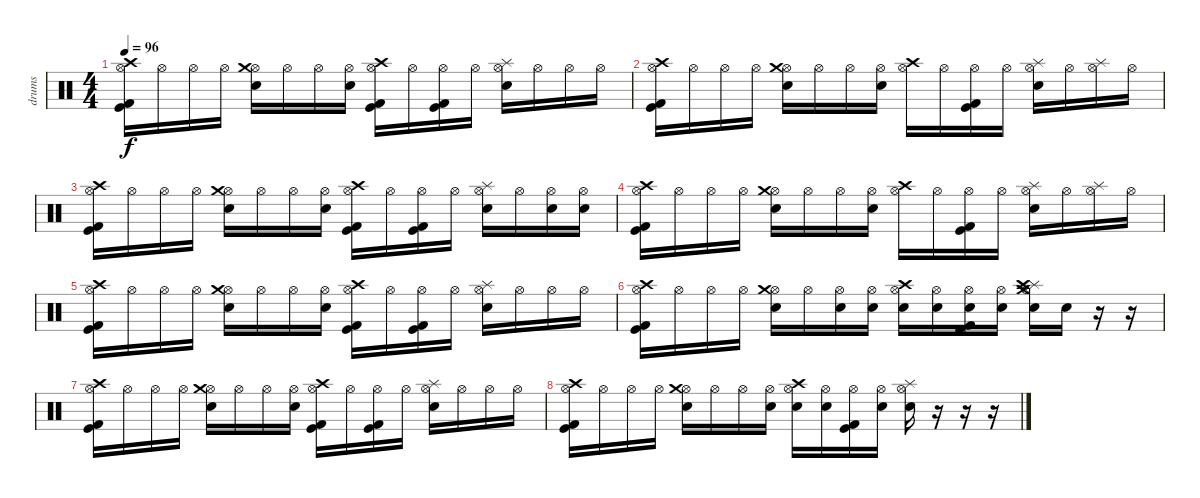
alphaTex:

\track ("drums" "drums") {instrument percussion}
\staff {score}
\articulation defaults
\ts (4 4)
\tempo 96
\clef neutral
\ks c
("Hi-Hat (open)" "Crash high (hit)" "Kick (hit) 2" "Kick (hit)").16{dy f} "Hi-Hat (open)".16 "Hi-Hat (open)".16 "Hi-Hat (open)".16 ("Hi-Hat (open)" "Crash medium (hit)" "Electric Snare (hit)").16 "Hi-Hat (open)".16 "Hi-Hat (open)".16 ("Hi-Hat (open)" "Electric Snare (hit)").16 ("Hi-Hat (open)" "Crash high (hit)" "Kick (hit)" "Kick (hit) 2").16 "Hi-Hat (open)".16 ("Hi-Hat (open)" "Kick (hit)" "Kick (hit) 2").16 "Hi-Hat (open)".16 ("Hi-Hat (open)" "Splash (hit)" "Electric Snare (hit)").16 "Hi-Hat (open)".16 "Hi-Hat (open)".16 "Hi-Hat (open)".16 |
("Hi-Hat (open)" "Crash high (hit)" "Kick (hit) 2" "Kick (hit)").16 "Hi-Hat (open)".16 "Hi-Hat (open)".16 "Hi-Hat (open)".16 ("Hi-Hat (open)" "Crash medium (hit)" "Electric Snare (hit)").16 "Hi-Hat (open)".16 "Hi-Hat (open)".16 ("Hi-Hat (open)" "Electric Snare (hit)").16 ("Hi-Hat (open)" "Crash high (hit)").16 "Hi-Hat (open)".16 ("Hi-Hat (open)" "Kick (hit)" "Kick (hit) 2").16 "Hi-Hat (open)".16 ("Hi-Hat (open)" "Splash (hit)" "Electric Snare (hit)").16 "Hi-Hat (open)".16 ("Hi-Hat (open)" "Splash (hit)").16 "Hi-Hat (open)".16 |
("Hi-Hat (open)" "Crash high (hit)" "Kick (hit) 2" "Kick (hit)").16 "Hi-Hat (open)".16 "Hi-Hat (open)".16 "Hi-Hat (open)".16 ("Hi-Hat (open)" "Crash medium (hit)" "Electric Snare (hit)").16 "Hi-Hat (open)".16 "Hi-Hat (open)".16 ("Hi-Hat (open)" "Electric Snare (hit)").16 ("Hi-Hat (open)" "Crash high (hit)" "Kick (hit)" "Kick (hit) 2").16 "Hi-Hat (open)".16 ("Hi-Hat (open)" "Kick (hit)" "Kick (hit) 2").16 "Hi-Hat (open)".16 ("Hi-Hat (open)" "Splash (hit)" "Electric Snare (hit)").16 "Hi-Hat (open)".16 ("Hi-Hat (open)" "Electric Snare (hit)").16 ("Hi-Hat (open)" "Electric Snare (hit)").16 |
("Hi-Hat (open)" "Crash high (hit)" "Kick (hit) 2" "Kick (hit)").16 "Hi-Hat (open)".16 "Hi-Hat (open)".16 "Hi-Hat (open)".16 ("Hi-Hat (open)" "Crash medium (hit)" "Electric Snare (hit)").16 "Hi-Hat (open)".16 "Hi-Hat (open)".16 ("Hi-Hat (open)" "Electric Snare (hit)").16 ("Hi-Hat (open)" "Crash high (hit)").16 "Hi-Hat (open)".16 ("Hi-Hat (open)" "Kick (hit)" "Kick (hit) 2").16 "Hi-Hat (open)".16 ("Hi-Hat (open)" "Splash (hit)" "Electric Snare (hit)").16 "Hi-Hat (open)".16 ("Hi-Hat (open)" "Splash (hit)").16 "Hi-Hat (open)".16 |
("Hi-Hat (open)" "Crash high (hit)" "Kick (hit) 2" "Kick (hit)").16 "Hi-Hat (open)".16 "Hi-Hat (open)".16 "Hi-Hat (open)".16 ("Hi-Hat (open)" "Crash medium (hit)" "Electric Snare (hit)").16 "Hi-Hat (open)".16 "Hi-Hat (open)".16 ("Hi-Hat (open)" "Electric Snare (hit)").16 ("Hi-Hat (open)" "Crash high (hit)" "Kick (hit)" "Kick (hit) 2").16 "Hi-Hat (open)".16 ("Hi-Hat (open)" "Kick (hit)" "Kick (hit) 2").16 "Hi-Hat (open)".16 ("Hi-Hat (open)" "Splash (hit)" "Electric Snare (hit)").16 "Hi-Hat (open)".16 "Hi-Hat (open)".16 "Hi-Hat (open)".16 |
("Hi-Hat (open)" "Crash high (hit)" "Kick (hit) 2" "Kick (hit)").16 "Hi-Hat (open)".16 "Hi-Hat (open)".16 "Hi-Hat (open)".16 ("Hi-Hat (open)" "Crash medium (hit)" "Electric Snare (hit)").16 "Hi-Hat (open)".16 ("Hi-Hat (open)" "Electric Snare (hit)").16 ("Hi-Hat (open)" "Electric Snare (hit)").16 ("Hi-Hat (open)" "Crash high (hit)" "Electric Snare (hit)").16 ("Hi-Hat (open)" "Electric Snare (hit)").16 ("Hi-Hat (open)" "Electric Snare (hit)" "Kick (hit)" "Kick (hit) 2").16 ("Hi-Hat (open)" "Electric Snare (hit)").16 ("Hi-Hat (open)" "Splash (hit)" "Electric Snare (hit)" "Crash high (hit)" "Crash medium (hit)").16 "Electric Snare (hit)".16 r.16 r.16 |
("Hi-Hat (open)" "Crash high (hit)" "Kick (hit) 2" "Kick (hit)").16 "Hi-Hat (open)".16 "Hi-Hat (open)".16 "Hi-Hat (open)".16 ("Hi-Hat (open)" "Crash medium (hit)" "Electric Snare (hit)").16 "Hi-Hat (open)".16 "Hi-Hat (open)".16 ("Hi-Hat (open)" "Electric Snare (hit)").16 ("Hi-Hat (open)" "Crash high (hit)" "Kick (hit)" "Kick (hit) 2").16 "Hi-Hat (open)".16 ("Hi-Hat (open)" "Kick (hit)" "Kick (hit) 2").16 "Hi-Hat (open)".16 ("Hi-Hat (open)" "Splash (hit)" "Electric Snare (hit)").16 "Hi-Hat (open)".16 "Hi-Hat (open)".16 "Hi-Hat (open)".16 |
("Hi-Hat (open)" "Crash high (hit)" "Kick (hit) 2" "Kick (hit)").16 "Hi-Hat (open)".16 "Hi-Hat (open)".16 "Hi-Hat (open)".16 ("Hi-Hat (open)" "Crash medium (hit)" "Electric Snare (hit)").16 "Hi-Hat (open)".16 "Hi-Hat (open)".16 ("Hi-Hat (open)" "Electric Snare (hit)").16 ("Hi-Hat (open)" "Crash high (hit)" "Electric Snare (hit)").16 ("Hi-Hat (open)" "Electric Snare (hit)").16 ("Hi-Hat (open)" "Kick (hit)" "Kick (hit) 2").16 ("Hi-Hat (open)" "Electric Snare (hit)").16 ("Hi-Hat (open)" "Splash (hit)" "Electric Snare (hit)").16 r.16 r.16 r.16
